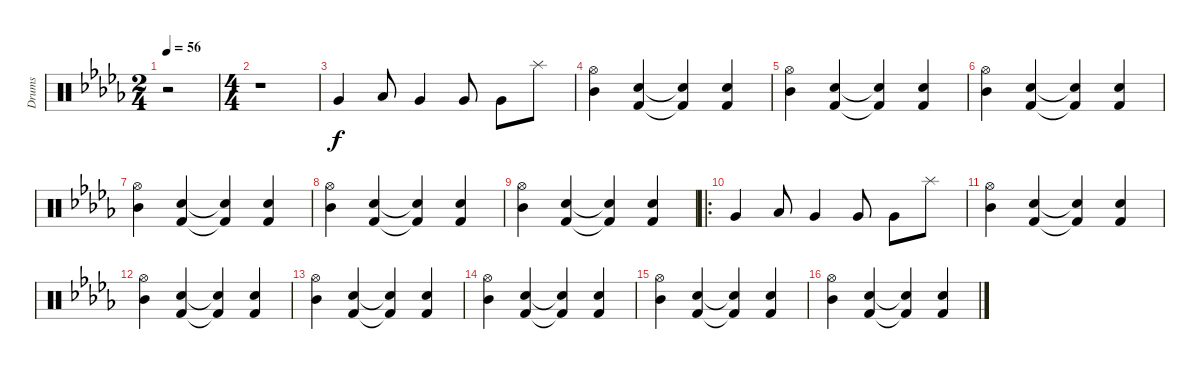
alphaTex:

\track ("Drums" "Drums") {instrument percussion}
\staff {score}
\articulation defaults
\ts (2 4)
\tempo 56
\clef neutral
\ks bbminor
r.2{dy f} |
\ts (4 4)
r.1 |
"Very Low Tom (hit)".4 "Low Tom (hit)".8 "Very Low Tom (hit)".4 "Very Low Tom (hit)".8 "Very Low Tom (hit)".8 "Splash (hit)".8 |
("Mid Tom (hit)" "Hi-Hat (open)").4 ("Snare (hit) 2" "Kick (hit) 2").4 ("Snare (hit) 2"{t} "Kick (hit) 2"{t}).4 ("Snare (hit) 2" "Kick (hit) 2").4 |
("Mid Tom (hit)" "Hi-Hat (open)").4 ("Snare (hit) 2" "Kick (hit) 2").4 ("Snare (hit) 2"{t} "Kick (hit) 2"{t}).4 ("Snare (hit) 2" "Kick (hit) 2").4 |
("Mid Tom (hit)" "Hi-Hat (open)").4 ("Snare (hit) 2" "Kick (hit) 2").4 ("Snare (hit) 2"{t} "Kick (hit) 2"{t}).4 ("Snare (hit) 2" "Kick (hit) 2").4 |
("Mid Tom (hit)" "Hi-Hat (open)").4 ("Snare (hit) 2" "Kick (hit) 2").4 ("Snare (hit) 2"{t} "Kick (hit) 2"{t}).4 ("Snare (hit) 2" "Kick (hit) 2").4 |
("Mid Tom (hit)" "Hi-Hat (open)").4 ("Snare (hit) 2" "Kick (hit) 2").4 ("Snare (hit) 2"{t} "Kick (hit) 2"{t}).4 ("Snare (hit) 2" "Kick (hit) 2").4 |
("Mid Tom (hit)" "Hi-Hat (open)").4 ("Snare (hit) 2" "Kick (hit) 2").4 ("Snare (hit) 2"{t} "Kick (hit) 2"{t}).4 ("Snare (hit) 2" "Kick (hit) 2").4 |
\ro "Very Low Tom (hit)".4 "Low Tom (hit)".8 "Very Low Tom (hit)".4 "Very Low Tom (hit)".8 "Very Low Tom (hit)".8 "Splash (hit)".8
|
("Mid Tom (hit)" "Hi-Hat (open)").4 ("Snare (hit) 2" "Kick (hit) 2").4 ("Snare (hit) 2"{t} "Kick (hit) 2"{t}).4 ("Snare (hit) 2" "Kick (hit) 2").4 |
("Mid Tom (hit)" "Hi-Hat (open)").4 ("Snare (hit) 2" "Kick (hit) 2").4 ("Snare (hit) 2"{t} "Kick (hit) 2"{t}).4 ("Snare (hit) 2" "Kick (hit) 2").4 |
("Mid Tom (hit)" "Hi-Hat (open)").4 ("Snare (hit) 2" "Kick (hit) 2").4 ("Snare (hit) 2"{t} "Kick (hit) 2"{t}).4 ("Snare (hit) 2" "Kick (hit) 2").4 |
("Mid Tom (hit)" "Hi-Hat (open)").4 ("Snare (hit) 2" "Kick (hit) 2").4 ("Snare (hit) 2"{t} "Kick (hit) 2"{t}).4 ("Snare (hit) 2" "Kick (hit) 2").4 |
("Mid Tom (hit)" "Hi-Hat (open)").4 ("Snare (hit) 2" "Kick (hit) 2").4 ("Snare (hit) 2"{t} "Kick (hit) 2"{t}).4 ("Snare (hit) 2" "Kick (hit) 2").4 |
("Mid Tom (hit)" "Hi-Hat (open)").4 ("Snare (hit) 2" "Kick (hit) 2").4 ("Snare (hit) 2"{t} "Kick (hit) 2"{t}).4 ("Snare (hit) 2" "Kick (hit) 2").4
